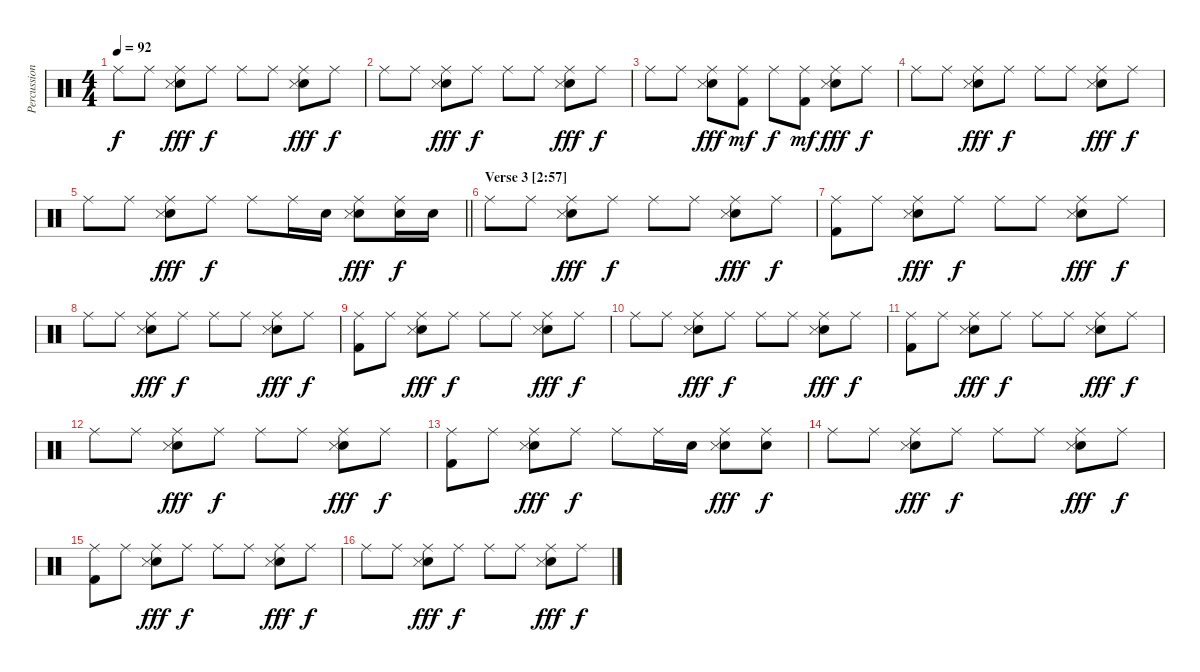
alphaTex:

\track ("Percussion" "Percussion") {instrument percussion}
\staff {score}
\articulation defaults
\ts (4 4)
\tempo 92
\clef neutral
\ks c "Ride (middle)".8{dy f} "Ride (middle)".8
("Ride (middle)" "Snare (hit) 2" "Snare (side stick) 3").8{dy fff} "Ride (middle)".8{dy f} "Ride (middle)".8 "Ride (middle)".8 ("Ride (middle)" "Snare (hit) 2" "Snare (side stick) 3").8{dy fff} "Ride (middle)".8{dy f} |
"Ride (middle)".8 "Ride (middle)".8 ("Ride (middle)" "Snare (hit) 2" "Snare (side stick) 3").8{dy fff} "Ride (middle)".8{dy f} "Ride (middle)".8 "Ride (middle)".8 ("Ride (middle)" "Snare (hit) 2" "Snare (side stick) 3").8{dy fff} "Ride (middle)".8{dy f} |
"Ride (middle)".8 "Ride (middle)".8 ("Ride (middle)" "Snare (hit) 2" "Snare (side stick) 3").8{dy fff} ("Ride (middle)" "Kick (hit) 2").8{dy mf} "Ride (middle)".8{dy f} ("Ride (middle)" "Kick (hit) 2").8{dy mf} ("Ride (middle)" "Snare (hit) 2" "Snare (side stick) 3").8{dy fff} "Ride (middle)".8{dy f} |
"Ride (middle)".8 "Ride (middle)".8 ("Ride (middle)" "Snare (hit) 2" "Snare (side stick) 3").8{dy fff} "Ride (middle)".8{dy f} "Ride (middle)".8 "Ride (middle)".8 ("Ride (middle)" "Snare (hit) 2" "Snare (side stick) 3").8{dy fff} "Ride (middle)".8{dy f} |
\barLineRight lightlight "Ride (middle)".8 "Ride (middle)".8
("Ride (middle)" "Snare (hit) 2" "Snare (side stick) 3").8{dy fff} "Ride (middle)".8{dy f} "Ride (middle)".8 "Ride (middle)".16 "Snare (hit) 2".16 ("Ride (middle)" "Snare (hit) 2" "Snare (side stick) 3").8{dy fff} ("Ride (middle)" "Snare (hit) 2").16{dy f} "Snare (hit) 2".16 |
\section ("" "Verse 3 [2:57]")
"Ride (middle)".8 "Ride (middle)".8 ("Ride (middle)" "Snare (hit) 2" "Snare (side stick) 3").8{dy fff} "Ride (middle)".8{dy f} "Ride (middle)".8 "Ride (middle)".8 ("Ride (middle)" "Snare (hit) 2" "Snare (side stick) 3").8{dy fff} "Ride (middle)".8{dy f} |
("Ride (middle)" "Kick (hit) 2").8 "Ride (middle)".8 ("Ride (middle)" "Snare (hit) 2" "Snare (side stick) 3").8{dy fff} "Ride (middle)".8{dy f} "Ride (middle)".8 "Ride (middle)".8 ("Ride (middle)" "Snare (hit) 2" "Snare (side stick) 3").8{dy fff} "Ride (middle)".8{dy f} |
"Ride (middle)".8 "Ride (middle)".8 ("Ride (middle)" "Snare (hit) 2" "Snare (side stick) 3").8{dy fff} "Ride (middle)".8{dy f} "Ride (middle)".8 "Ride (middle)".8 ("Ride (middle)" "Snare (hit) 2" "Snare (side stick) 3").8{dy fff} "Ride (middle)".8{dy f} |
("Ride (middle)" "Kick (hit) 2").8 "Ride (middle)".8 ("Ride (middle)" "Snare (hit) 2" "Snare (side stick) 3").8{dy fff} "Ride (middle)".8{dy f} "Ride (middle)".8 "Ride (middle)".8 ("Ride (middle)" "Snare (hit) 2" "Snare (side stick) 3").8{dy fff} "Ride (middle)".8{dy f} |
"Ride (middle)".8 "Ride (middle)".8 ("Ride (middle)" "Snare (hit) 2" "Snare (side stick) 3").8{dy fff} "Ride (middle)".8{dy f} "Ride (middle)".8 "Ride (middle)".8 ("Ride (middle)" "Snare (hit) 2" "Snare (side stick) 3").8{dy fff} "Ride (middle)".8{dy f} |
("Ride (middle)" "Kick (hit) 2").8 "Ride (middle)".8 ("Ride (middle)" "Snare (hit) 2" "Snare (side stick) 3").8{dy fff} "Ride (middle)".8{dy f} "Ride (middle)".8 "Ride (middle)".8 ("Ride (middle)" "Snare (hit) 2" "Snare (side stick) 3").8{dy fff} "Ride (middle)".8{dy f} |
"Ride (middle)".8 "Ride (middle)".8 ("Ride (middle)" "Snare (hit) 2" "Snare (side stick) 3").8{dy fff} "Ride (middle)".8{dy f} "Ride (middle)".8 "Ride (middle)".8 ("Ride (middle)" "Snare (hit) 2" "Snare (side stick) 3").8{dy fff} "Ride (middle)".8{dy f} |
("Ride (middle)" "Kick (hit) 2").8 "Ride (middle)".8 ("Ride (middle)" "Snare (hit) 2" "Snare (side stick) 3").8{dy fff} "Ride (middle)".8{dy f} "Ride (middle)".8 "Ride (middle)".16 "Snare (hit) 2".16 ("Ride (middle)" "Snare (hit) 2" "Snare (side stick) 3").8{dy fff} ("Ride (middle)" "Snare (hit) 2").8{dy f} |
"Ride (middle)".8 "Ride (middle)".8 ("Ride (middle)" "Snare (hit) 2" "Snare (side stick) 3").8{dy fff} "Ride (middle)".8{dy f} "Ride (middle)".8 "Ride (middle)".8 ("Ride (middle)" "Snare (hit) 2" "Snare (side stick) 3").8{dy fff} "Ride (middle)".8{dy f} |
("Ride (middle)" "Kick (hit) 2").8 "Ride (middle)".8 ("Ride (middle)" "Snare (hit) 2" "Snare (side stick) 3").8{dy fff} "Ride (middle)".8{dy f} "Ride (middle)".8 "Ride (middle)".8 ("Ride (middle)" "Snare (hit) 2" "Snare (side stick) 3").8{dy fff} "Ride (middle)".8{dy f} |
"Ride (middle)".8 "Ride (middle)".8 ("Ride (middle)" "Snare (hit) 2" "Snare (side stick) 3").8{dy fff} "Ride (middle)".8{dy f} "Ride (middle)".8 "Ride (middle)".8 ("Ride (middle)" "Snare (hit) 2" "Snare (side stick) 3").8{dy fff} "Ride (middle)".8{dy f}
